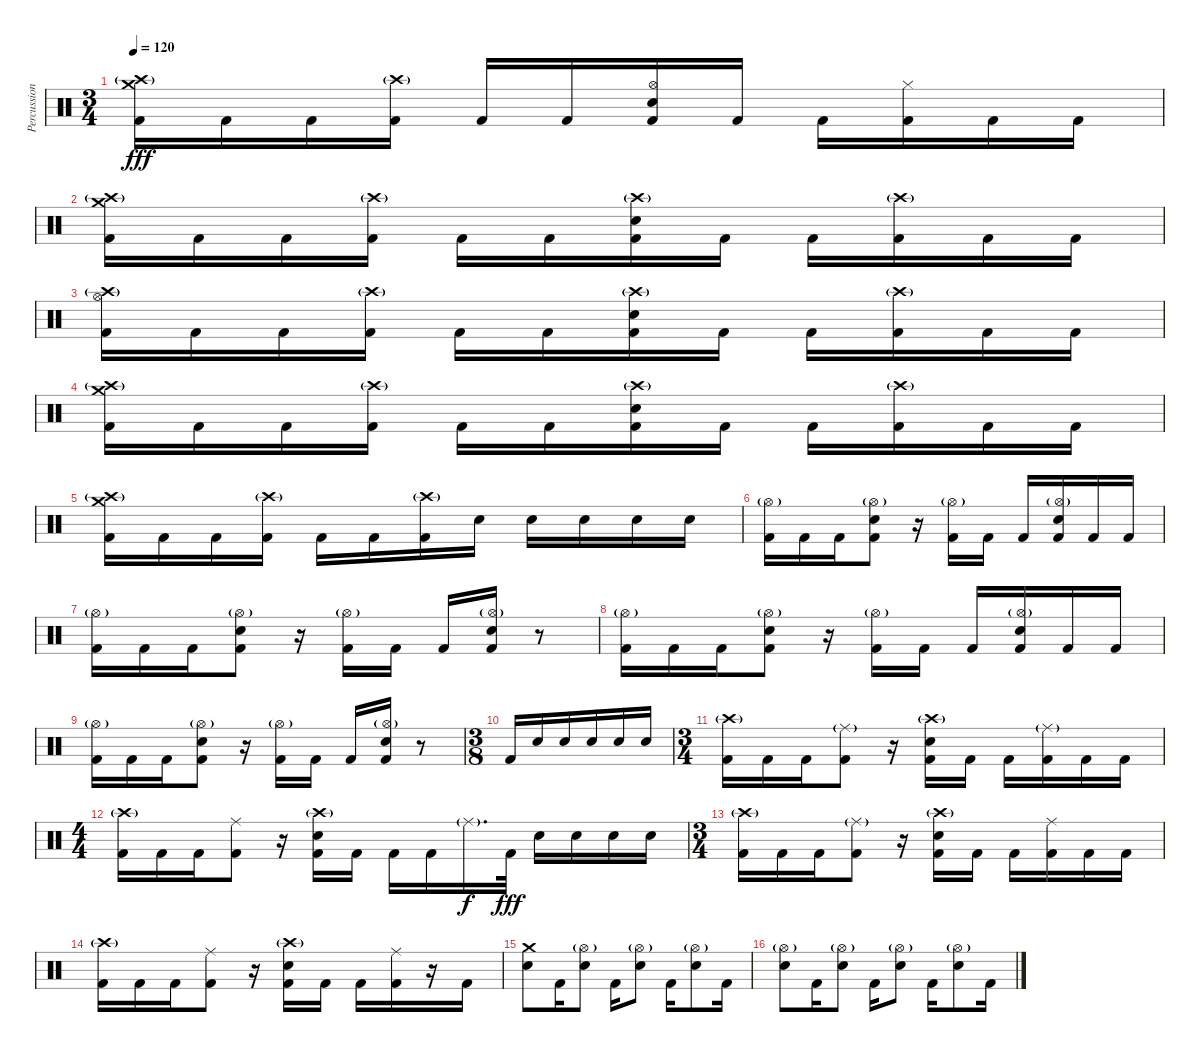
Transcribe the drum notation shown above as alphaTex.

\track ("Percussion" "Percussion") {instrument percussion}
\staff {score}
\articulation defaults
\ts (3 4)
\tempo 120
\clef neutral
\ks c
("Crash high (hit)"{g} "Crash medium (hit)" "Kick (hit) 2").16{dy fff} "Kick (hit) 2".16 "Kick (hit) 2".16 ("Crash high (hit)"{g} "Kick (hit) 2").16 "Kick (hit) 2".16 "Kick (hit) 2".16 ("Hi-Hat (open)" "Electric Snare (hit)" "Kick (hit) 2").16 "Kick (hit) 2".16 "Kick (hit) 2".16 ("Hi-Hat (closed)" "Kick (hit) 2").16 "Kick (hit) 2".16 "Kick (hit) 2".16 |
("Crash high (hit)"{g} "Crash medium (hit)" "Kick (hit) 2").16 "Kick (hit) 2".16 "Kick (hit) 2".16 ("Crash high (hit)"{g} "Kick (hit) 2").16 "Kick (hit) 2".16 "Kick (hit) 2".16 ("Crash high (hit)"{g} "Electric Snare (hit)" "Kick (hit) 2").16 "Kick (hit) 2".16 "Kick (hit) 2".16 ("Crash high (hit)"{g} "Kick (hit) 2").16 "Kick (hit) 2".16 "Kick (hit) 2".16 |
("Crash high (hit)"{g} "Hi-Hat (open)" "Kick (hit) 2").16 "Kick (hit) 2".16 "Kick (hit) 2".16 ("Crash high (hit)"{g} "Kick (hit) 2").16 "Kick (hit) 2".16 "Kick (hit) 2".16 ("Crash high (hit)"{g} "Electric Snare (hit)" "Kick (hit) 2").16 "Kick (hit) 2".16 "Kick (hit) 2".16 ("Crash high (hit)"{g} "Kick (hit) 2").16 "Kick (hit) 2".16 "Kick (hit) 2".16 |
("Crash high (hit)"{g} "Crash medium (hit)" "Kick (hit) 2").16 "Kick (hit) 2".16 "Kick (hit) 2".16 ("Crash high (hit)"{g} "Kick (hit) 2").16 "Kick (hit) 2".16 "Kick (hit) 2".16 ("Crash high (hit)"{g} "Electric Snare (hit)" "Kick (hit) 2").16 "Kick (hit) 2".16 "Kick (hit) 2".16 ("Crash high (hit)"{g} "Kick (hit) 2").16 "Kick (hit) 2".16 "Kick (hit) 2".16 |
("Crash high (hit)"{g} "Crash medium (hit)" "Kick (hit) 2").16 "Kick (hit) 2".16 "Kick (hit) 2".16 ("Crash high (hit)"{g} "Kick (hit) 2").16 "Kick (hit) 2".16 "Kick (hit) 2".16 ("Crash high (hit)"{g} "Kick (hit) 2").16 "Electric Snare (hit)".16 "Electric Snare (hit)".16 "Electric Snare (hit)".16 "Electric Snare (hit)".16 "Electric Snare (hit)".16 |
("Hi-Hat (open)"{g} "Kick (hit) 2").16 "Kick (hit) 2".16 "Kick (hit) 2".16 ("Hi-Hat (open)"{g} "Electric Snare (hit)" "Kick (hit) 2").8 r.16 ("Hi-Hat (open)"{g} "Kick (hit) 2").16 "Kick (hit) 2".16 "Kick (hit) 2".16 ("Hi-Hat (open)"{g} "Electric Snare (hit)" "Kick (hit) 2").16 "Kick (hit) 2".16 "Kick (hit) 2".16 |
("Hi-Hat (open)"{g} "Kick (hit) 2").16 "Kick (hit) 2".16 "Kick (hit) 2".16 ("Hi-Hat (open)"{g} "Electric Snare (hit)" "Kick (hit) 2").8 r.16 ("Hi-Hat (open)"{g} "Kick (hit) 2").16 "Kick (hit) 2".16 "Kick (hit) 2".16 ("Hi-Hat (open)"{g} "Electric Snare (hit)" "Kick (hit) 2").16 r.8 |
("Hi-Hat (open)"{g} "Kick (hit) 2").16 "Kick (hit) 2".16 "Kick (hit) 2".16 ("Hi-Hat (open)"{g} "Electric Snare (hit)" "Kick (hit) 2").8 r.16 ("Hi-Hat (open)"{g} "Kick (hit) 2").16 "Kick (hit) 2".16 "Kick (hit) 2".16 ("Hi-Hat (open)"{g} "Electric Snare (hit)" "Kick (hit) 2").16 "Kick (hit) 2".16 "Kick (hit) 2".16 |
("Hi-Hat (open)"{g} "Kick (hit) 2").16 "Kick (hit) 2".16 "Kick (hit) 2".16 ("Hi-Hat (open)"{g} "Electric Snare (hit)" "Kick (hit) 2").8 r.16 ("Hi-Hat (open)"{g} "Kick (hit) 2").16 "Kick (hit) 2".16 "Kick (hit) 2".16 ("Hi-Hat (open)"{g} "Electric Snare (hit)" "Kick (hit) 2").16 r.8 |
\ts (3 8)
"Kick (hit) 2".16 "Electric Snare (hit)".16 "Electric Snare (hit)".16 "Electric Snare (hit)".16 "Electric Snare (hit)".16 "Electric Snare (hit)".16 |
\ts (3 4)
("Crash high (hit)"{g} "Kick (hit) 2").16 "Kick (hit) 2".16 "Kick (hit) 2".16 ("Ride (middle)"{g} "Kick (hit) 2").8 r.16 ("Crash high (hit)"{g} "Electric Snare (hit)" "Kick (hit) 2").16 "Kick (hit) 2".16 "Kick (hit) 2".16 ("Ride (middle)"{g} "Kick (hit) 2").16 "Kick (hit) 2".16 "Kick (hit) 2".16 |
\ts (4 4)
("Crash high (hit)"{g} "Kick (hit) 2").16 "Kick (hit) 2".16 "Kick (hit) 2".16 ("Ride (middle)" "Kick (hit) 2").8 r.16 ("Crash high (hit)"{g} "Electric Snare (hit)" "Kick (hit) 2").16 "Kick (hit) 2".16 "Kick (hit) 2".16 "Kick (hit) 2".16 "Ride (middle)"{g}.16{d dy f} "Kick (hit) 2".32{dy fff} "Electric Snare (hit)".16 "Electric Snare (hit)".16 "Electric Snare (hit)".16 "Electric Snare (hit)".16 |
\ts (3 4)
("Crash high (hit)"{g} "Kick (hit) 2").16 "Kick (hit) 2".16 "Kick (hit) 2".16 ("Ride (middle)"{g} "Kick (hit) 2").8 r.16 ("Crash high (hit)"{g} "Electric Snare (hit)" "Kick (hit) 2").16 "Kick (hit) 2".16 "Kick (hit) 2".16 ("Ride (middle)" "Kick (hit) 2").16 "Kick (hit) 2".16 "Kick (hit) 2".16 |
("Crash high (hit)"{g} "Kick (hit) 2").16 "Kick (hit) 2".16 "Kick (hit) 2".16 ("Ride (middle)" "Kick (hit) 2").8 r.16 ("Crash high (hit)"{g} "Electric Snare (hit)" "Kick (hit) 2").16 "Kick (hit) 2".16 "Kick (hit) 2".16 ("Ride (middle)" "Kick (hit) 2").16 r.16 "Kick (hit) 2".16 |
("Crash medium (hit)" "Electric Snare (hit)").8 "Kick (hit) 2".16 ("Hi-Hat (open)"{g} "Electric Snare (hit)").8 "Kick (hit) 2".16 ("Hi-Hat (open)"{g} "Electric Snare (hit)").8 "Kick (hit) 2".16 ("Hi-Hat (open)"{g} "Electric Snare (hit)").8 "Kick (hit) 2".16 |
("Hi-Hat (open)"{g} "Electric Snare (hit)").8 "Kick (hit) 2".16 ("Hi-Hat (open)"{g} "Electric Snare (hit)").8 "Kick (hit) 2".16 ("Hi-Hat (open)"{g} "Electric Snare (hit)").8 "Kick (hit) 2".16 ("Hi-Hat (open)"{g} "Electric Snare (hit)").8 "Kick (hit) 2".16
